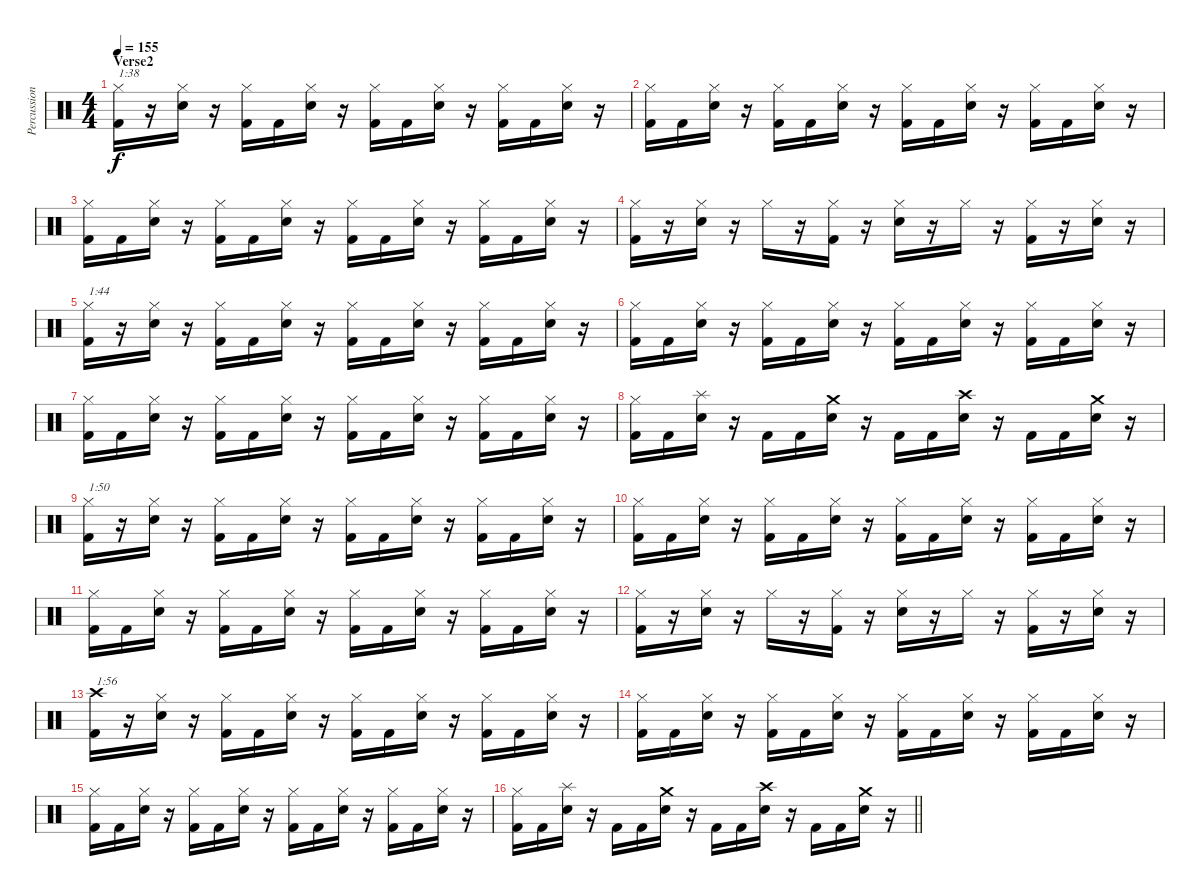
\track ("Percussion" "Percussion") {instrument percussion}
\staff {score}
\articulation defaults
\ts (4 4)
\section ("" "Verse2")
\tempo 155
\clef neutral
\ks c
("Hi-Hat (closed)" "Kick (hit) 2").16{txt "1:38" dy f} r.16 ("Hi-Hat (closed)" "Electric Snare (hit)").16 r.16 ("Hi-Hat (closed)" "Kick (hit) 2").16 "Kick (hit) 2".16 ("Hi-Hat (closed)" "Electric Snare (hit)").16 r.16 ("Hi-Hat (closed)" "Kick (hit) 2").16 "Kick (hit) 2".16 ("Hi-Hat (closed)" "Electric Snare (hit)").16 r.16 ("Hi-Hat (closed)" "Kick (hit) 2").16 "Kick (hit) 2".16 ("Hi-Hat (closed)" "Electric Snare (hit)").16 r.16 |
("Hi-Hat (closed)" "Kick (hit) 2").16 "Kick (hit) 2".16 ("Hi-Hat (closed)" "Electric Snare (hit)").16 r.16 ("Hi-Hat (closed)" "Kick (hit) 2").16 "Kick (hit) 2".16 ("Hi-Hat (closed)" "Electric Snare (hit)").16 r.16 ("Hi-Hat (closed)" "Kick (hit) 2").16 "Kick (hit) 2".16 ("Hi-Hat (closed)" "Electric Snare (hit)").16 r.16 ("Hi-Hat (closed)" "Kick (hit) 2").16 "Kick (hit) 2".16 ("Hi-Hat (closed)" "Electric Snare (hit)").16 r.16 |
("Hi-Hat (closed)" "Kick (hit) 2").16 "Kick (hit) 2".16 ("Hi-Hat (closed)" "Electric Snare (hit)").16 r.16 ("Hi-Hat (closed)" "Kick (hit) 2").16 "Kick (hit) 2".16 ("Hi-Hat (closed)" "Electric Snare (hit)").16 r.16 ("Hi-Hat (closed)" "Kick (hit) 2").16 "Kick (hit) 2".16 ("Hi-Hat (closed)" "Electric Snare (hit)").16 r.16 ("Hi-Hat (closed)" "Kick (hit) 2").16 "Kick (hit) 2".16 ("Hi-Hat (closed)" "Electric Snare (hit)").16 r.16 |
("Hi-Hat (closed)" "Kick (hit) 2").16 r.16 ("Hi-Hat (closed)" "Electric Snare (hit)").16 r.16 "Hi-Hat (closed)".16 r.16 ("Hi-Hat (closed)" "Kick (hit) 2").16 r.16 ("Hi-Hat (closed)" "Electric Snare (hit)").16 r.16 "Hi-Hat (closed)".16 r.16 ("Hi-Hat (closed)" "Kick (hit) 2").16 r.16 ("Hi-Hat (closed)" "Electric Snare (hit)").16 r.16 |
("Hi-Hat (closed)" "Kick (hit) 2").16{txt "1:44"} r.16 ("Hi-Hat (closed)" "Electric Snare (hit)").16 r.16 ("Hi-Hat (closed)" "Kick (hit) 2").16 "Kick (hit) 2".16 ("Hi-Hat (closed)" "Electric Snare (hit)").16 r.16 ("Hi-Hat (closed)" "Kick (hit) 2").16 "Kick (hit) 2".16 ("Hi-Hat (closed)" "Electric Snare (hit)").16 r.16 ("Hi-Hat (closed)" "Kick (hit) 2").16 "Kick (hit) 2".16 ("Hi-Hat (closed)" "Electric Snare (hit)").16 r.16 |
("Hi-Hat (closed)" "Kick (hit) 2").16 "Kick (hit) 2".16 ("Hi-Hat (closed)" "Electric Snare (hit)").16 r.16 ("Hi-Hat (closed)" "Kick (hit) 2").16 "Kick (hit) 2".16 ("Hi-Hat (closed)" "Electric Snare (hit)").16 r.16 ("Hi-Hat (closed)" "Kick (hit) 2").16 "Kick (hit) 2".16 ("Hi-Hat (closed)" "Electric Snare (hit)").16 r.16 ("Hi-Hat (closed)" "Kick (hit) 2").16 "Kick (hit) 2".16 ("Hi-Hat (closed)" "Electric Snare (hit)").16 r.16 |
("Hi-Hat (closed)" "Kick (hit) 2").16 "Kick (hit) 2".16 ("Hi-Hat (closed)" "Electric Snare (hit)").16 r.16 ("Hi-Hat (closed)" "Kick (hit) 2").16 "Kick (hit) 2".16 ("Hi-Hat (closed)" "Electric Snare (hit)").16 r.16 ("Hi-Hat (closed)" "Kick (hit) 2").16 "Kick (hit) 2".16 ("Hi-Hat (closed)" "Electric Snare (hit)").16 r.16 ("Hi-Hat (closed)" "Kick (hit) 2").16 "Kick (hit) 2".16 ("Hi-Hat (closed)" "Electric Snare (hit)").16 r.16 |
("Hi-Hat (closed)" "Kick (hit) 2").16 "Kick (hit) 2".16 ("Splash (hit)" "Electric Snare (hit)").16 r.16 "Kick (hit) 2".16 "Kick (hit) 2".16 ("Crash medium (hit)" "Electric Snare (hit)").16 r.16 "Kick (hit) 2".16 "Kick (hit) 2".16 ("Crash high (hit)" "Electric Snare (hit)").16 r.16 "Kick (hit) 2".16 "Kick (hit) 2".16 ("Crash medium (hit)" "Electric Snare (hit)").16 r.16 |
("Hi-Hat (closed)" "Kick (hit) 2").16{txt "1:50"} r.16 ("Hi-Hat (closed)" "Electric Snare (hit)").16 r.16 ("Hi-Hat (closed)" "Kick (hit) 2").16 "Kick (hit) 2".16 ("Hi-Hat (closed)" "Electric Snare (hit)").16 r.16 ("Hi-Hat (closed)" "Kick (hit) 2").16 "Kick (hit) 2".16 ("Hi-Hat (closed)" "Electric Snare (hit)").16 r.16 ("Hi-Hat (closed)" "Kick (hit) 2").16 "Kick (hit) 2".16 ("Hi-Hat (closed)" "Electric Snare (hit)").16 r.16 |
("Hi-Hat (closed)" "Kick (hit) 2").16 "Kick (hit) 2".16 ("Hi-Hat (closed)" "Electric Snare (hit)").16 r.16 ("Hi-Hat (closed)" "Kick (hit) 2").16 "Kick (hit) 2".16 ("Hi-Hat (closed)" "Electric Snare (hit)").16 r.16 ("Hi-Hat (closed)" "Kick (hit) 2").16 "Kick (hit) 2".16 ("Hi-Hat (closed)" "Electric Snare (hit)").16 r.16 ("Hi-Hat (closed)" "Kick (hit) 2").16 "Kick (hit) 2".16 ("Hi-Hat (closed)" "Electric Snare (hit)").16 r.16 |
("Hi-Hat (closed)" "Kick (hit) 2").16 "Kick (hit) 2".16 ("Hi-Hat (closed)" "Electric Snare (hit)").16 r.16 ("Hi-Hat (closed)" "Kick (hit) 2").16 "Kick (hit) 2".16 ("Hi-Hat (closed)" "Electric Snare (hit)").16 r.16 ("Hi-Hat (closed)" "Kick (hit) 2").16 "Kick (hit) 2".16 ("Hi-Hat (closed)" "Electric Snare (hit)").16 r.16 ("Hi-Hat (closed)" "Kick (hit) 2").16 "Kick (hit) 2".16 ("Hi-Hat (closed)" "Electric Snare (hit)").16 r.16 |
("Hi-Hat (closed)" "Kick (hit) 2").16 r.16 ("Hi-Hat (closed)" "Electric Snare (hit)").16 r.16 "Hi-Hat (closed)".16 r.16 ("Hi-Hat (closed)" "Kick (hit) 2").16 r.16 ("Hi-Hat (closed)" "Electric Snare (hit)").16 r.16 "Hi-Hat (closed)".16 r.16 ("Hi-Hat (closed)" "Kick (hit) 2").16 r.16 ("Hi-Hat (closed)" "Electric Snare (hit)").16 r.16 |
("Crash high (hit)" "Kick (hit) 2").16{txt "1:56"} r.16 ("Hi-Hat (closed)" "Electric Snare (hit)").16 r.16 ("Hi-Hat (closed)" "Kick (hit) 2").16 "Kick (hit) 2".16 ("Hi-Hat (closed)" "Electric Snare (hit)").16 r.16 ("Hi-Hat (closed)" "Kick (hit) 2").16 "Kick (hit) 2".16 ("Hi-Hat (closed)" "Electric Snare (hit)").16 r.16 ("Hi-Hat (closed)" "Kick (hit) 2").16 "Kick (hit) 2".16 ("Hi-Hat (closed)" "Electric Snare (hit)").16 r.16 |
("Hi-Hat (closed)" "Kick (hit) 2").16 "Kick (hit) 2".16 ("Hi-Hat (closed)" "Electric Snare (hit)").16 r.16 ("Hi-Hat (closed)" "Kick (hit) 2").16 "Kick (hit) 2".16 ("Hi-Hat (closed)" "Electric Snare (hit)").16 r.16 ("Hi-Hat (closed)" "Kick (hit) 2").16 "Kick (hit) 2".16 ("Hi-Hat (closed)" "Electric Snare (hit)").16 r.16 ("Hi-Hat (closed)" "Kick (hit) 2").16 "Kick (hit) 2".16 ("Hi-Hat (closed)" "Electric Snare (hit)").16 r.16 |
("Hi-Hat (closed)" "Kick (hit) 2").16 "Kick (hit) 2".16 ("Hi-Hat (closed)" "Electric Snare (hit)").16 r.16 ("Hi-Hat (closed)" "Kick (hit) 2").16 "Kick (hit) 2".16 ("Hi-Hat (closed)" "Electric Snare (hit)").16 r.16 ("Hi-Hat (closed)" "Kick (hit) 2").16 "Kick (hit) 2".16 ("Hi-Hat (closed)" "Electric Snare (hit)").16 r.16 ("Hi-Hat (closed)" "Kick (hit) 2").16 "Kick (hit) 2".16 ("Hi-Hat (closed)" "Electric Snare (hit)").16 r.16 |
\barLineRight lightlight
("Hi-Hat (closed)" "Kick (hit) 2").16 "Kick (hit) 2".16 ("Splash (hit)" "Electric Snare (hit)").16 r.16 "Kick (hit) 2".16 "Kick (hit) 2".16 ("Crash medium (hit)" "Electric Snare (hit)").16 r.16 "Kick (hit) 2".16 "Kick (hit) 2".16 ("Crash high (hit)" "Electric Snare (hit)").16 r.16 "Kick (hit) 2".16 "Kick (hit) 2".16 ("Crash medium (hit)" "Electric Snare (hit)").16 r.16
